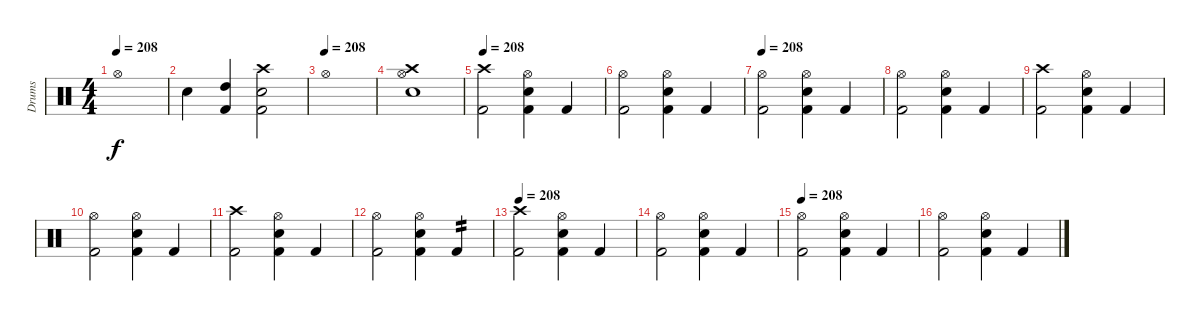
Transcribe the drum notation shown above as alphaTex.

\track ("Drums" "Drums") {instrument percussion}
\staff {score}
\articulation defaults
\ts (4 4)
\tempo 208
\clef neutral
\ks c "Hi-Hat (open)".1{dy f}
|
"Electric Snare (hit)".4 ("High Tom (hit)" "Kick (hit) 2").4 ("Crash high (hit)" "Electric Snare (hit)" "Kick (hit) 2").2 |
\tempo (208)
"Hi-Hat (open)".1 |
("Crash high (hit)" "Electric Snare (hit)" "Hi-Hat (open)").1 |
\tempo 208
("Crash high (hit)" "Kick (hit) 2").2 ("Hi-Hat (open)" "Electric Snare (hit)" "Kick (hit) 2").4 "Kick (hit) 2".4 |
("Hi-Hat (open)" "Kick (hit) 2").2 ("Hi-Hat (open)" "Electric Snare (hit)" "Kick (hit) 2").4 "Kick (hit) 2".4 |
\tempo 208
("Hi-Hat (open)" "Kick (hit) 2").2 ("Hi-Hat (open)" "Electric Snare (hit)" "Kick (hit) 2").4 "Kick (hit) 2".4 |
("Hi-Hat (open)" "Kick (hit) 2").2 ("Hi-Hat (open)" "Electric Snare (hit)" "Kick (hit) 2").4 "Kick (hit) 2".4 |
("Crash high (hit)" "Kick (hit) 2").2 ("Hi-Hat (open)" "Electric Snare (hit)" "Kick (hit) 2").4 "Kick (hit) 2".4 |
("Hi-Hat (open)" "Kick (hit) 2").2 ("Hi-Hat (open)" "Electric Snare (hit)" "Kick (hit) 2").4 "Kick (hit) 2".4 |
("Crash high (hit)" "Kick (hit) 2").2 ("Hi-Hat (open)" "Electric Snare (hit)" "Kick (hit) 2").4 "Kick (hit) 2".4 |
("Hi-Hat (open)" "Kick (hit) 2").2 ("Hi-Hat (open)" "Electric Snare (hit)" "Kick (hit) 2").4 "Kick (hit) 2".4{tp 2} |
\tempo 208
("Crash high (hit)" "Kick (hit) 2").2 ("Hi-Hat (open)" "Electric Snare (hit)" "Kick (hit) 2").4 "Kick (hit) 2".4 |
("Hi-Hat (open)" "Kick (hit) 2").2 ("Hi-Hat (open)" "Electric Snare (hit)" "Kick (hit) 2").4 "Kick (hit) 2".4 |
\tempo 208
("Hi-Hat (open)" "Kick (hit) 2").2 ("Hi-Hat (open)" "Electric Snare (hit)" "Kick (hit) 2").4 "Kick (hit) 2".4 |
("Hi-Hat (open)" "Kick (hit) 2").2 ("Hi-Hat (open)" "Electric Snare (hit)" "Kick (hit) 2").4 "Kick (hit) 2".4
